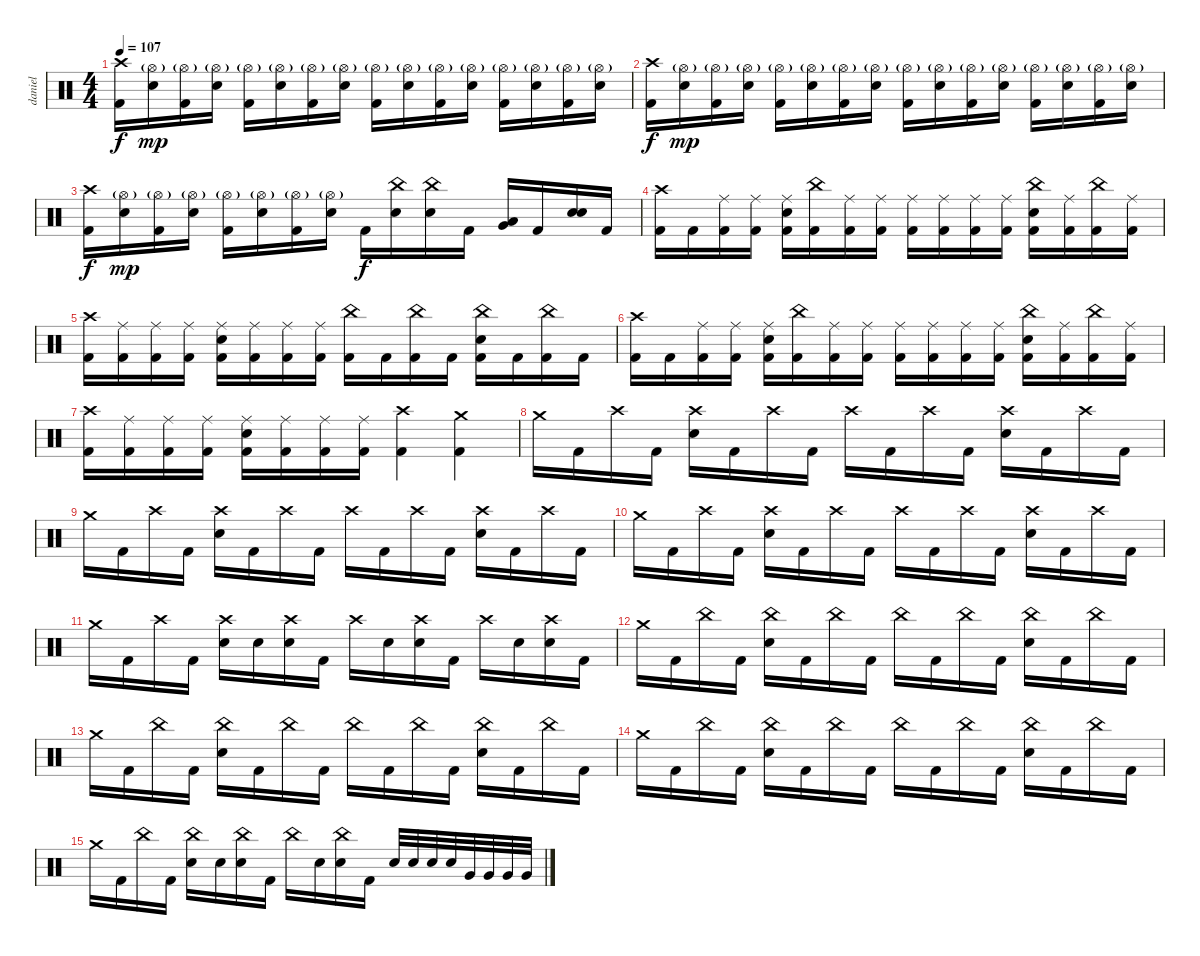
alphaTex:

\track ("daniel" "daniel") {instrument percussion}
\staff {score}
\articulation defaults
\ts (4 4)
\tempo 107
\clef neutral
\ks c
("Crash high (hit)" "Kick (hit) 2").16{dy f} ("Hi-Hat (open)"{g} "Electric Snare (hit)").16{dy mp} ("Hi-Hat (open)"{g} "Kick (hit) 2").16 ("Hi-Hat (open)"{g} "Electric Snare (hit)").16 ("Hi-Hat (open)"{g} "Kick (hit) 2").16 ("Hi-Hat (open)"{g} "Electric Snare (hit)").16 ("Hi-Hat (open)"{g} "Kick (hit) 2").16 ("Hi-Hat (open)"{g} "Electric Snare (hit)").16 ("Hi-Hat (open)"{g} "Kick (hit) 2").16 ("Hi-Hat (open)"{g} "Electric Snare (hit)").16 ("Hi-Hat (open)"{g} "Kick (hit) 2").16 ("Hi-Hat (open)"{g} "Electric Snare (hit)").16 ("Hi-Hat (open)"{g} "Kick (hit) 2").16 ("Hi-Hat (open)"{g} "Electric Snare (hit)").16 ("Hi-Hat (open)"{g} "Kick (hit) 2").16 ("Hi-Hat (open)"{g} "Electric Snare (hit)").16 |
("Crash high (hit)" "Kick (hit) 2").16{dy f} ("Hi-Hat (open)"{g} "Electric Snare (hit)").16{dy mp} ("Hi-Hat (open)"{g} "Kick (hit) 2").16 ("Hi-Hat (open)"{g} "Electric Snare (hit)").16 ("Hi-Hat (open)"{g} "Kick (hit) 2").16 ("Hi-Hat (open)"{g} "Electric Snare (hit)").16 ("Hi-Hat (open)"{g} "Kick (hit) 2").16 ("Hi-Hat (open)"{g} "Electric Snare (hit)").16 ("Hi-Hat (open)"{g} "Kick (hit) 2").16 ("Hi-Hat (open)"{g} "Electric Snare (hit)").16 ("Hi-Hat (open)"{g} "Kick (hit) 2").16 ("Hi-Hat (open)"{g} "Electric Snare (hit)").16 ("Hi-Hat (open)"{g} "Kick (hit) 2").16 ("Hi-Hat (open)"{g} "Electric Snare (hit)").16 ("Hi-Hat (open)"{g} "Kick (hit) 2").16 ("Hi-Hat (open)"{g} "Electric Snare (hit)").16 |
("Crash high (hit)" "Kick (hit) 2").16{dy f} ("Hi-Hat (open)"{g} "Electric Snare (hit)").16{dy mp} ("Hi-Hat (open)"{g} "Kick (hit) 2").16 ("Hi-Hat (open)"{g} "Electric Snare (hit)").16 ("Hi-Hat (open)"{g} "Kick (hit) 2").16 ("Hi-Hat (open)"{g} "Electric Snare (hit)").16 ("Hi-Hat (open)"{g} "Kick (hit) 2").16 ("Hi-Hat (open)"{g} "Electric Snare (hit)").16 "Kick (hit) 2".16{dy f} ("China (hit)" "Electric Snare (hit)").16 ("China (hit)" "Electric Snare (hit)").16 "Kick (hit) 2".16 ("Low Tom (hit)" "Very Low Tom (hit)").16{bd 120} "Kick (hit) 2".16 ("Electric Snare (hit)" "Electric Snare (hit)").16{bd 120} "Kick (hit) 2".16 |
("Crash high (hit)" "Kick (hit) 2").16 "Kick (hit) 2".16 ("Ride (middle)" "Kick (hit) 2").16 ("Ride (middle)" "Kick (hit) 2").16 ("Ride (middle)" "Electric Snare (hit)" "Kick (hit) 2").16 ("China (hit)" "Kick (hit) 2").16 ("Ride (middle)" "Kick (hit) 2").16 ("Ride (middle)" "Kick (hit) 2").16 ("Ride (middle)" "Kick (hit) 2").16 ("Ride (middle)" "Kick (hit) 2").16 ("Ride (middle)" "Kick (hit) 2").16 ("Ride (middle)" "Kick (hit) 2").16 ("China (hit)" "Electric Snare (hit)" "Kick (hit) 2").16 ("Ride (middle)" "Kick (hit) 2").16 ("China (hit)" "Kick (hit) 2").16 ("Ride (middle)" "Kick (hit) 2").16 |
("Crash high (hit)" "Kick (hit) 2").16 ("Ride (middle)" "Kick (hit) 2").16 ("Ride (middle)" "Kick (hit) 2").16 ("Ride (middle)" "Kick (hit) 2").16 ("Ride (middle)" "Electric Snare (hit)" "Kick (hit) 2").16 ("Ride (middle)" "Kick (hit) 2").16 ("Ride (middle)" "Kick (hit) 2").16 ("Ride (middle)" "Kick (hit) 2").16 ("China (hit)" "Kick (hit) 2").16 "Kick (hit) 2".16 ("China (hit)" "Kick (hit) 2").16 "Kick (hit) 2".16 ("China (hit)" "Electric Snare (hit)" "Kick (hit) 2").16 "Kick (hit) 2".16 ("China (hit)" "Kick (hit) 2").16 "Kick (hit) 2".16 |
("Crash high (hit)" "Kick (hit) 2").16 "Kick (hit) 2".16 ("Ride (middle)" "Kick (hit) 2").16 ("Ride (middle)" "Kick (hit) 2").16 ("Ride (middle)" "Electric Snare (hit)" "Kick (hit) 2").16 ("China (hit)" "Kick (hit) 2").16 ("Ride (middle)" "Kick (hit) 2").16 ("Ride (middle)" "Kick (hit) 2").16 ("Ride (middle)" "Kick (hit) 2").16 ("Ride (middle)" "Kick (hit) 2").16 ("Ride (middle)" "Kick (hit) 2").16 ("Ride (middle)" "Kick (hit) 2").16 ("China (hit)" "Electric Snare (hit)" "Kick (hit) 2").16 ("Ride (middle)" "Kick (hit) 2").16 ("China (hit)" "Kick (hit) 2").16 ("Ride (middle)" "Kick (hit) 2").16 |
("Crash high (hit)" "Kick (hit) 2").16 ("Ride (middle)" "Kick (hit) 2").16 ("Ride (middle)" "Kick (hit) 2").16 ("Ride (middle)" "Kick (hit) 2").16 ("Ride (middle)" "Electric Snare (hit)" "Kick (hit) 2").16 ("Ride (middle)" "Kick (hit) 2").16 ("Ride (middle)" "Kick (hit) 2").16 ("Ride (middle)" "Kick (hit) 2").16 ("Crash high (hit)" "Kick (hit) 2").4 ("Crash medium (hit)" "Kick (hit) 2").4 |
"Crash medium (hit)".16 "Kick (hit) 2".16 "Crash high (hit)".16 "Kick (hit) 2".16 ("Crash high (hit)" "Electric Snare (hit)").16 "Kick (hit) 2".16 "Crash high (hit)".16 "Kick (hit) 2".16 "Crash high (hit)".16 "Kick (hit) 2".16 "Crash high (hit)".16 "Kick (hit) 2".16 ("Crash high (hit)" "Electric Snare (hit)").16 "Kick (hit) 2".16 "Crash high (hit)".16 "Kick (hit) 2".16 |
"Crash medium (hit)".16 "Kick (hit) 2".16 "Crash high (hit)".16 "Kick (hit) 2".16 ("Crash high (hit)" "Electric Snare (hit)").16 "Kick (hit) 2".16 "Crash high (hit)".16 "Kick (hit) 2".16 "Crash high (hit)".16 "Kick (hit) 2".16 "Crash high (hit)".16 "Kick (hit) 2".16 ("Crash high (hit)" "Electric Snare (hit)").16 "Kick (hit) 2".16 "Crash high (hit)".16 "Kick (hit) 2".16 |
"Crash medium (hit)".16 "Kick (hit) 2".16 "Crash high (hit)".16 "Kick (hit) 2".16 ("Crash high (hit)" "Electric Snare (hit)").16 "Kick (hit) 2".16 "Crash high (hit)".16 "Kick (hit) 2".16 "Crash high (hit)".16 "Kick (hit) 2".16 "Crash high (hit)".16 "Kick (hit) 2".16 ("Crash high (hit)" "Electric Snare (hit)").16 "Kick (hit) 2".16 "Crash high (hit)".16 "Kick (hit) 2".16 |
"Crash medium (hit)".16 "Kick (hit) 2".16 "Crash high (hit)".16 "Kick (hit) 2".16 ("Crash high (hit)" "Electric Snare (hit)").16 "Electric Snare (hit)".16 ("Crash high (hit)" "Electric Snare (hit)").16 "Kick (hit) 2".16 "Crash high (hit)".16 "Electric Snare (hit)".16 ("Crash high (hit)" "Electric Snare (hit)").16 "Kick (hit) 2".16 "Crash high (hit)".16 "Electric Snare (hit)".16 ("Crash high (hit)" "Electric Snare (hit)").16 "Kick (hit) 2".16 |
"Crash medium (hit)".16 "Kick (hit) 2".16 "China (hit)".16 "Kick (hit) 2".16 ("China (hit)" "Electric Snare (hit)").16 "Kick (hit) 2".16 "China (hit)".16 "Kick (hit) 2".16 "China (hit)".16 "Kick (hit) 2".16 "China (hit)".16 "Kick (hit) 2".16 ("China (hit)" "Electric Snare (hit)").16 "Kick (hit) 2".16 "China (hit)".16 "Kick (hit) 2".16 |
"Crash medium (hit)".16 "Kick (hit) 2".16 "China (hit)".16 "Kick (hit) 2".16 ("China (hit)" "Electric Snare (hit)").16 "Kick (hit) 2".16 "China (hit)".16 "Kick (hit) 2".16 "China (hit)".16 "Kick (hit) 2".16 "China (hit)".16 "Kick (hit) 2".16 ("China (hit)" "Electric Snare (hit)").16 "Kick (hit) 2".16 "China (hit)".16 "Kick (hit) 2".16 |
"Crash medium (hit)".16 "Kick (hit) 2".16 "China (hit)".16 "Kick (hit) 2".16 ("China (hit)" "Electric Snare (hit)").16 "Kick (hit) 2".16 "China (hit)".16 "Kick (hit) 2".16 "China (hit)".16 "Kick (hit) 2".16 "China (hit)".16 "Kick (hit) 2".16 ("China (hit)" "Electric Snare (hit)").16 "Kick (hit) 2".16 "China (hit)".16 "Kick (hit) 2".16 |
"Crash medium (hit)".16 "Kick (hit) 2".16 "China (hit)".16 "Kick (hit) 2".16 ("China (hit)" "Electric Snare (hit)").16 "Electric Snare (hit)".16 ("China (hit)" "Electric Snare (hit)").16 "Kick (hit) 2".16 "China (hit)".16 "Electric Snare (hit)".16 ("China (hit)" "Electric Snare (hit)").16 "Kick (hit) 2".16 "Electric Snare (hit)".32 "Electric Snare (hit)".32 "Electric Snare (hit)".32 "Electric Snare (hit)".32 "Very Low Tom (hit)".32 "Very Low Tom (hit)".32 "Very Low Tom (hit)".32 "Very Low Tom (hit)".32
